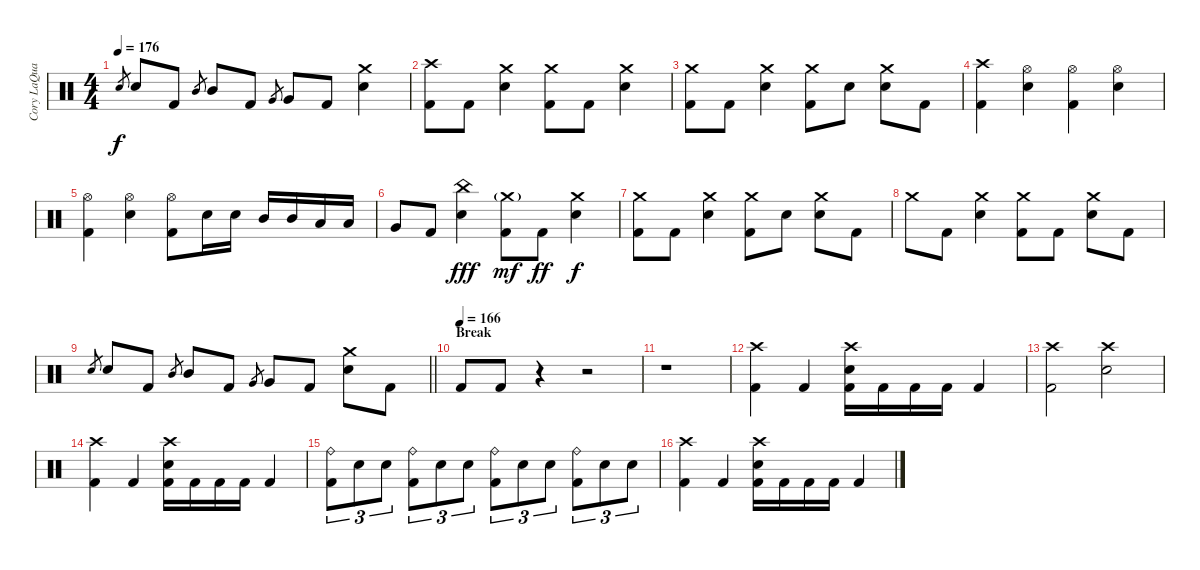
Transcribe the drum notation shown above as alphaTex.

\track ("Cory LaQuay" "Cory LaQua") {instrument percussion}
\staff {score}
\articulation defaults
\ts (4 4)
\tempo 176
\clef neutral
\ks c "Snare (hit) 2".8{gr dy f} "Snare (hit) 2".8 "Kick (hit) 2".8 "Mid Tom (hit)".8{gr} "Mid Tom (hit)".8 "Kick (hit) 2".8 "Very Low Tom (hit)".8{gr} "Very Low Tom (hit)".8 "Kick (hit) 2".8
("Crash medium (hit)" "Snare (hit) 2").4 |
("Crash high (hit)" "Kick (hit) 2").8 "Kick (hit) 2".8 ("Crash medium (hit)" "Snare (hit) 2").4 ("Crash medium (hit)" "Kick (hit) 2").8 "Kick (hit) 2".8 ("Crash medium (hit)" "Snare (hit) 2").4 |
("Crash medium (hit)" "Kick (hit) 2").8 "Kick (hit) 2".8 ("Crash medium (hit)" "Snare (hit) 2").4 ("Crash medium (hit)" "Kick (hit) 2").8 "Snare (hit) 2".8 ("Crash medium (hit)" "Snare (hit) 2").8 "Kick (hit) 2".8 |
("Crash high (hit)" "Kick (hit) 2").4 ("Hi-Hat (open)" "Snare (hit) 2").4 ("Hi-Hat (open)" "Kick (hit) 2").4 ("Hi-Hat (open)" "Snare (hit) 2").4 |
("Hi-Hat (open)" "Kick (hit) 2").4 ("Hi-Hat (open)" "Snare (hit) 2").4 ("Hi-Hat (open)" "Kick (hit) 2").8 "Snare (hit) 2".16 "Snare (hit) 2".16 "Mid Tom (hit)".16 "Mid Tom (hit)".16 "Low Tom (hit)".16 "Low Tom (hit)".16 |
"Very Low Tom (hit)".8 "Kick (hit) 2".8 ("China (hit)" "Snare (hit) 2").4{dy fff} ("Crash medium (hit)"{g} "Kick (hit) 2").8{dy mf} "Kick (hit) 2".8{dy ff} ("Crash medium (hit)" "Snare (hit) 2").4{dy f} |
("Crash medium (hit)" "Kick (hit) 2").8 "Kick (hit) 2".8 ("Crash medium (hit)" "Snare (hit) 2").4 ("Crash medium (hit)" "Kick (hit) 2").8 "Snare (hit) 2".8 ("Crash medium (hit)" "Snare (hit) 2").8 "Kick (hit) 2".8 |
"Crash medium (hit)".8 "Kick (hit) 2".8 ("Crash medium (hit)" "Snare (hit) 2").4 ("Crash medium (hit)" "Kick (hit) 2").8 "Kick (hit) 2".8 ("Crash medium (hit)" "Snare (hit) 2").8 "Kick (hit) 2".8 |
\barLineRight lightlight "Snare (hit) 2".8{gr} "Snare (hit) 2".8 "Kick (hit) 2".8 "Mid Tom (hit)".8{gr} "Mid Tom (hit)".8 "Kick (hit) 2".8 "Very Low Tom (hit)".8{gr} "Very Low Tom (hit)".8 "Kick (hit) 2".8
("Crash medium (hit)" "Snare (hit) 2").8 "Kick (hit) 2".8 |
\section ("" "Break")
\tempo (166)
"Kick (hit) 2".8 "Kick (hit) 2".8 r.4 r.2 |
r.1 |
("Crash high (hit)" "Kick (hit) 2").4 "Kick (hit) 2".4 ("Crash high (hit)" "Snare (hit) 2" "Kick (hit) 2").16 "Kick (hit) 2".16 "Kick (hit) 2".16 "Kick (hit) 2".16 "Kick (hit) 2".4 |
("Crash high (hit)" "Kick (hit) 2").2 ("Crash high (hit)" "Snare (hit) 2").2 |
("Crash high (hit)" "Kick (hit) 2").4 "Kick (hit) 2".4 ("Crash high (hit)" "Snare (hit) 2" "Kick (hit) 2").16 "Kick (hit) 2".16 "Kick (hit) 2".16 "Kick (hit) 2".16 "Kick (hit) 2".4 |
("Ride (bell)" "Kick (hit) 2").8{tu (3 2)} "Snare (hit) 2".8{tu (3 2)} "Snare (hit) 2".8{tu (3 2)} ("Ride (bell)" "Kick (hit) 2").8{tu (3 2)} "Snare (hit) 2".8{tu (3 2)} "Snare (hit) 2".8{tu (3 2)} ("Ride (bell)" "Kick (hit) 2").8{tu (3 2)} "Snare (hit) 2".8{tu (3 2)} "Snare (hit) 2".8{tu (3 2)} ("Ride (bell)" "Kick (hit) 2").8{tu (3 2)} "Snare (hit) 2".8{tu (3 2)} "Snare (hit) 2".8{tu (3 2)} |
("Crash high (hit)" "Kick (hit) 2").4 "Kick (hit) 2".4 ("Crash high (hit)" "Snare (hit) 2" "Kick (hit) 2").16 "Kick (hit) 2".16 "Kick (hit) 2".16 "Kick (hit) 2".16 "Kick (hit) 2".4
